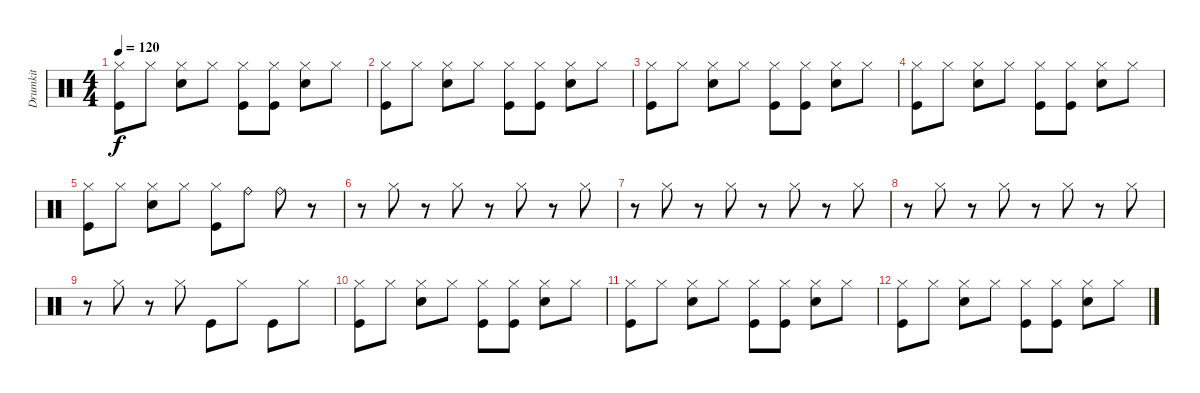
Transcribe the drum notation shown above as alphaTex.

\track ("Drumkit" "Drumkit") {instrument percussion}
\staff {score}
\articulation defaults
\ts (4 4)
\tempo 120
\clef neutral
\ks c
("Hi-Hat (closed)" "Kick (hit)").8{dy f} "Hi-Hat (closed)".8 ("Snare (hit) 2" "Hi-Hat (closed)").8 "Hi-Hat (closed)".8 ("Hi-Hat (closed)" "Kick (hit)").8 ("Hi-Hat (closed)" "Kick (hit)").8 ("Snare (hit) 2" "Hi-Hat (closed)").8 "Hi-Hat (closed)".8 |
("Hi-Hat (closed)" "Kick (hit)").8 "Hi-Hat (closed)".8 ("Snare (hit) 2" "Hi-Hat (closed)").8 "Hi-Hat (closed)".8 ("Hi-Hat (closed)" "Kick (hit)").8 ("Hi-Hat (closed)" "Kick (hit)").8 ("Snare (hit) 2" "Hi-Hat (closed)").8 "Hi-Hat (closed)".8 |
("Hi-Hat (closed)" "Kick (hit)").8 "Hi-Hat (closed)".8 ("Snare (hit) 2" "Hi-Hat (closed)").8 "Hi-Hat (closed)".8 ("Hi-Hat (closed)" "Kick (hit)").8 ("Hi-Hat (closed)" "Kick (hit)").8 ("Snare (hit) 2" "Hi-Hat (closed)").8 "Hi-Hat (closed)".8 |
("Hi-Hat (closed)" "Kick (hit)").8 "Hi-Hat (closed)".8 ("Snare (hit) 2" "Hi-Hat (closed)").8 "Hi-Hat (closed)".8 ("Hi-Hat (closed)" "Kick (hit)").8 ("Hi-Hat (closed)" "Kick (hit)").8 ("Snare (hit) 2" "Hi-Hat (closed)").8 "Hi-Hat (closed)".8 |
("Hi-Hat (closed)" "Kick (hit)").8 "Hi-Hat (closed)".8 ("Snare (hit) 2" "Hi-Hat (closed)").8 "Hi-Hat (closed)".8 ("Hi-Hat (closed)" "Kick (hit)").8 "Ride (bell)".8 "Ride (bell)".8 r.8 |
r.8 "Hi-Hat (closed)".8 r.8 "Hi-Hat (closed)".8 r.8 "Hi-Hat (closed)".8 r.8 "Hi-Hat (closed)".8 |
r.8 "Hi-Hat (closed)".8 r.8 "Hi-Hat (closed)".8 r.8 "Hi-Hat (closed)".8 r.8 "Hi-Hat (closed)".8 |
r.8 "Hi-Hat (closed)".8 r.8 "Hi-Hat (closed)".8 r.8 "Hi-Hat (closed)".8 r.8 "Hi-Hat (closed)".8 |
r.8 "Hi-Hat (closed)".8 r.8 "Hi-Hat (closed)".8 "Kick (hit)".8 "Hi-Hat (closed)".8 "Kick (hit)".8 "Hi-Hat (closed)".8 |
("Hi-Hat (closed)" "Kick (hit)").8 "Hi-Hat (closed)".8 ("Snare (hit) 2" "Hi-Hat (closed)").8 "Hi-Hat (closed)".8 ("Hi-Hat (closed)" "Kick (hit)").8 ("Hi-Hat (closed)" "Kick (hit)").8 ("Snare (hit) 2" "Hi-Hat (closed)").8 "Hi-Hat (closed)".8 |
("Hi-Hat (closed)" "Kick (hit)").8 "Hi-Hat (closed)".8 ("Snare (hit) 2" "Hi-Hat (closed)").8 "Hi-Hat (closed)".8 ("Hi-Hat (closed)" "Kick (hit)").8 ("Hi-Hat (closed)" "Kick (hit)").8 ("Snare (hit) 2" "Hi-Hat (closed)").8 "Hi-Hat (closed)".8 |
("Hi-Hat (closed)" "Kick (hit)").8 "Hi-Hat (closed)".8 ("Snare (hit) 2" "Hi-Hat (closed)").8 "Hi-Hat (closed)".8 ("Hi-Hat (closed)" "Kick (hit)").8 ("Hi-Hat (closed)" "Kick (hit)").8 ("Snare (hit) 2" "Hi-Hat (closed)").8 "Hi-Hat (closed)".8
